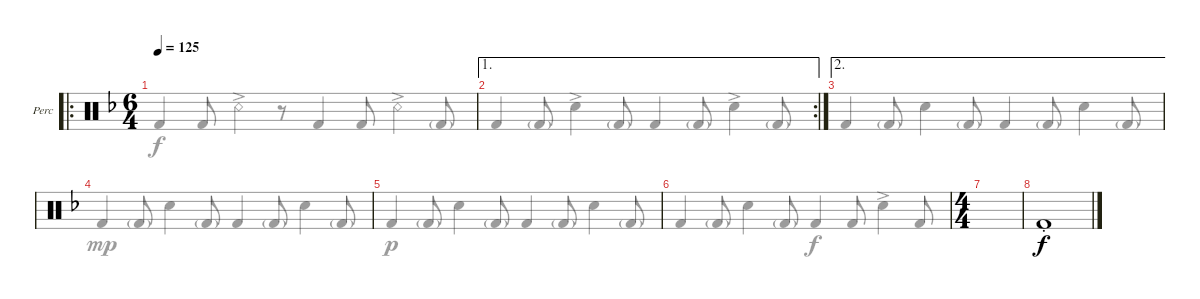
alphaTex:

\defaultSystemsLayout 4
\bracketExtendMode groupsimilarinstruments
\firstSystemTrackNameOrientation horizontal
\otherSystemsTrackNameOrientation horizontal
\track ("Body Percussion" "Perc") {instrument percussion}
\staff {score}
\articulation defaults
\voice
\ro
\ts (6 4)
\tempo 125
\clef neutral
\ks dminor
|
\ae 1
\rc 2
|
\ae 2
|
|
|
|
\ts (4 4)
\beaming (8 8)
|
"Kick (hit) 2"{st acc forcenatural}.1{dy f beam Up}
\voice
\clef neutral
\ottava regular
\simile none
\ks dminor "Kick (hit) 2"{acc forcenatural}.4{dy f beam Up} "Kick (hit) 2"{acc forcenatural}.8{beam Up} "Snare (rim shot)"{ac acc forcenatural}.4{beam Down}
r.8{beam Down} "Kick (hit) 2"{acc forcenatural}.4{beam Up} "Kick (hit) 2"{acc forcenatural}.8{beam Up} "Snare (rim shot)"{ac acc forcenatural}.4{beam Down} "Kick (hit) 2"{g acc forcenatural}.8{beam Up} |
"Kick (hit) 2"{acc forcenatural}.4{beam Up} "Kick (hit) 2"{g acc forcenatural}.8{beam Up} "Snare (hit) 2"{ac acc forcenatural}.4{beam Down} "Kick (hit) 2"{g acc forcenatural}.8{beam Up} "Kick (hit) 2"{acc forcenatural}.4{beam Up} "Kick (hit) 2"{g acc forcenatural}.8{beam Up} "Snare (hit) 2"{ac acc forcenatural}.4{beam Down} "Kick (hit) 2"{g acc forcenatural}.8{beam Up} |
"Kick (hit) 2"{acc forcenatural}.4{beam Up} "Kick (hit) 2"{g acc forcenatural}.8{beam Up} "Snare (hit) 2"{acc forcenatural}.4{beam Down} "Kick (hit) 2"{g acc forcenatural}.8{beam Up} "Kick (hit) 2"{acc forcenatural}.4{beam Up} "Kick (hit) 2"{g acc forcenatural}.8{beam Up} "Snare (hit) 2"{acc forcenatural}.4{beam Down} "Kick (hit) 2"{g acc forcenatural}.8{beam Up} |
"Kick (hit) 2"{acc forcenatural}.4{dy mp beam Up} "Kick (hit) 2"{g acc forcenatural}.8{beam Up} "Snare (hit) 2"{acc forcenatural}.4{beam Down} "Kick (hit) 2"{g acc forcenatural}.8{beam Up} "Kick (hit) 2"{acc forcenatural}.4{beam Up} "Kick (hit) 2"{g acc forcenatural}.8{beam Up} "Snare (hit) 2"{acc forcenatural}.4{beam Down} "Kick (hit) 2"{g acc forcenatural}.8{beam Up} |
"Kick (hit) 2"{acc forcenatural}.4{dy p beam Up} "Kick (hit) 2"{g acc forcenatural}.8{beam Up} "Snare (hit) 2"{acc forcenatural}.4{beam Down} "Kick (hit) 2"{g acc forcenatural}.8{beam Up} "Kick (hit) 2"{acc forcenatural}.4{beam Up} "Kick (hit) 2"{g acc forcenatural}.8{beam Up} "Snare (hit) 2"{acc forcenatural}.4{beam Down} "Kick (hit) 2"{g acc forcenatural}.8{beam Up} |
"Kick (hit) 2"{acc forcenatural}.4{beam Up} "Kick (hit) 2"{g acc forcenatural}.8{beam Up} "Snare (hit) 2"{acc forcenatural}.4{beam Down} "Kick (hit) 2"{g acc forcenatural}.8{beam Up} "Kick (hit) 2"{acc forcenatural}.4{dy f beam Up} "Kick (hit) 2"{acc forcenatural}.8{beam Up} "Snare (hit) 2"{ac acc forcenatural}.4{beam Down} "Kick (hit) 2"{acc forcenatural}.8{beam Up} |
|
